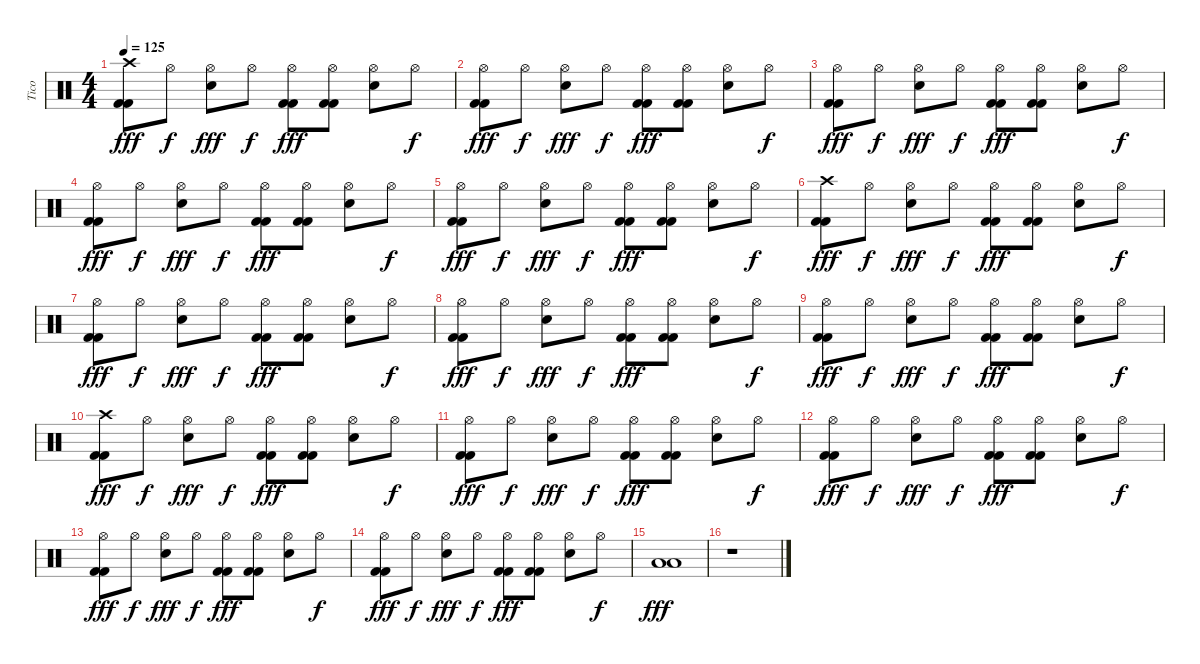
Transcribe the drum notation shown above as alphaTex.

\track ("Tico" "Tico") {instrument percussion}
\staff {score}
\articulation defaults
\ts (4 4)
\tempo 125
\clef neutral
\ks c
("Crash high (hit)" "Kick (hit) 2" "Kick (hit) 2").8{dy fff} "Hi-Hat (open)".8{dy f} ("Hi-Hat (open)" "Snare (hit) 2").8{dy fff} "Hi-Hat (open)".8{dy f} ("Hi-Hat (open)" "Kick (hit) 2" "Kick (hit) 2").8{dy fff} ("Hi-Hat (open)" "Kick (hit) 2" "Kick (hit) 2").8 ("Hi-Hat (open)" "Snare (hit) 2").8 "Hi-Hat (open)".8{dy f} |
("Hi-Hat (open)" "Kick (hit) 2" "Kick (hit) 2").8{dy fff} "Hi-Hat (open)".8{dy f} ("Hi-Hat (open)" "Snare (hit) 2").8{dy fff} "Hi-Hat (open)".8{dy f} ("Hi-Hat (open)" "Kick (hit) 2" "Kick (hit) 2").8{dy fff} ("Hi-Hat (open)" "Kick (hit) 2" "Kick (hit) 2").8 ("Hi-Hat (open)" "Snare (hit) 2").8 "Hi-Hat (open)".8{dy f} |
("Hi-Hat (open)" "Kick (hit) 2" "Kick (hit) 2").8{dy fff} "Hi-Hat (open)".8{dy f} ("Hi-Hat (open)" "Snare (hit) 2").8{dy fff} "Hi-Hat (open)".8{dy f} ("Hi-Hat (open)" "Kick (hit) 2" "Kick (hit) 2").8{dy fff} ("Hi-Hat (open)" "Kick (hit) 2" "Kick (hit) 2").8 ("Hi-Hat (open)" "Snare (hit) 2").8 "Hi-Hat (open)".8{dy f} |
("Hi-Hat (open)" "Kick (hit) 2" "Kick (hit) 2").8{dy fff} "Hi-Hat (open)".8{dy f} ("Hi-Hat (open)" "Snare (hit) 2").8{dy fff} "Hi-Hat (open)".8{dy f} ("Hi-Hat (open)" "Kick (hit) 2" "Kick (hit) 2").8{dy fff} ("Hi-Hat (open)" "Kick (hit) 2" "Kick (hit) 2").8 ("Hi-Hat (open)" "Snare (hit) 2").8 "Hi-Hat (open)".8{dy f} |
("Hi-Hat (open)" "Kick (hit) 2" "Kick (hit) 2").8{dy fff} "Hi-Hat (open)".8{dy f} ("Hi-Hat (open)" "Snare (hit) 2").8{dy fff} "Hi-Hat (open)".8{dy f} ("Hi-Hat (open)" "Kick (hit) 2" "Kick (hit) 2").8{dy fff} ("Hi-Hat (open)" "Kick (hit) 2" "Kick (hit) 2").8 ("Hi-Hat (open)" "Snare (hit) 2").8 "Hi-Hat (open)".8{dy f} |
("Crash high (hit)" "Kick (hit) 2" "Kick (hit) 2").8{dy fff} "Hi-Hat (open)".8{dy f} ("Hi-Hat (open)" "Snare (hit) 2").8{dy fff} "Hi-Hat (open)".8{dy f} ("Hi-Hat (open)" "Kick (hit) 2" "Kick (hit) 2").8{dy fff} ("Hi-Hat (open)" "Kick (hit) 2" "Kick (hit) 2").8 ("Hi-Hat (open)" "Snare (hit) 2").8 "Hi-Hat (open)".8{dy f} |
("Hi-Hat (open)" "Kick (hit) 2" "Kick (hit) 2").8{dy fff} "Hi-Hat (open)".8{dy f} ("Hi-Hat (open)" "Snare (hit) 2").8{dy fff} "Hi-Hat (open)".8{dy f} ("Hi-Hat (open)" "Kick (hit) 2" "Kick (hit) 2").8{dy fff} ("Hi-Hat (open)" "Kick (hit) 2" "Kick (hit) 2").8 ("Hi-Hat (open)" "Snare (hit) 2").8 "Hi-Hat (open)".8{dy f} |
("Hi-Hat (open)" "Kick (hit) 2" "Kick (hit) 2").8{dy fff} "Hi-Hat (open)".8{dy f} ("Hi-Hat (open)" "Snare (hit) 2").8{dy fff} "Hi-Hat (open)".8{dy f} ("Hi-Hat (open)" "Kick (hit) 2" "Kick (hit) 2").8{dy fff} ("Hi-Hat (open)" "Kick (hit) 2" "Kick (hit) 2").8 ("Hi-Hat (open)" "Snare (hit) 2").8 "Hi-Hat (open)".8{dy f} |
("Hi-Hat (open)" "Kick (hit) 2" "Kick (hit) 2").8{dy fff} "Hi-Hat (open)".8{dy f} ("Hi-Hat (open)" "Snare (hit) 2").8{dy fff} "Hi-Hat (open)".8{dy f} ("Hi-Hat (open)" "Kick (hit) 2" "Kick (hit) 2").8{dy fff} ("Hi-Hat (open)" "Kick (hit) 2" "Kick (hit) 2").8 ("Hi-Hat (open)" "Snare (hit) 2").8 "Hi-Hat (open)".8{dy f} |
("Crash high (hit)" "Kick (hit) 2" "Kick (hit) 2").8{dy fff} "Hi-Hat (open)".8{dy f} ("Hi-Hat (open)" "Snare (hit) 2").8{dy fff} "Hi-Hat (open)".8{dy f} ("Hi-Hat (open)" "Kick (hit) 2" "Kick (hit) 2").8{dy fff} ("Hi-Hat (open)" "Kick (hit) 2" "Kick (hit) 2").8 ("Hi-Hat (open)" "Snare (hit) 2").8 "Hi-Hat (open)".8{dy f} |
("Hi-Hat (open)" "Kick (hit) 2" "Kick (hit) 2").8{dy fff} "Hi-Hat (open)".8{dy f} ("Hi-Hat (open)" "Snare (hit) 2").8{dy fff} "Hi-Hat (open)".8{dy f} ("Hi-Hat (open)" "Kick (hit) 2" "Kick (hit) 2").8{dy fff} ("Hi-Hat (open)" "Kick (hit) 2" "Kick (hit) 2").8 ("Hi-Hat (open)" "Snare (hit) 2").8 "Hi-Hat (open)".8{dy f} |
("Hi-Hat (open)" "Kick (hit) 2" "Kick (hit) 2").8{dy fff} "Hi-Hat (open)".8{dy f} ("Hi-Hat (open)" "Snare (hit) 2").8{dy fff} "Hi-Hat (open)".8{dy f} ("Hi-Hat (open)" "Kick (hit) 2" "Kick (hit) 2").8{dy fff} ("Hi-Hat (open)" "Kick (hit) 2" "Kick (hit) 2").8 ("Hi-Hat (open)" "Snare (hit) 2").8 "Hi-Hat (open)".8{dy f} |
("Hi-Hat (open)" "Kick (hit) 2" "Kick (hit) 2").8{dy fff} "Hi-Hat (open)".8{dy f} ("Hi-Hat (open)" "Snare (hit) 2").8{dy fff} "Hi-Hat (open)".8{dy f} ("Hi-Hat (open)" "Kick (hit) 2" "Kick (hit) 2").8{dy fff} ("Hi-Hat (open)" "Kick (hit) 2" "Kick (hit) 2").8 ("Hi-Hat (open)" "Snare (hit) 2").8 "Hi-Hat (open)".8{dy f} |
("Hi-Hat (open)" "Kick (hit) 2" "Kick (hit) 2").8{dy fff} "Hi-Hat (open)".8{dy f} ("Hi-Hat (open)" "Snare (hit) 2").8{dy fff} "Hi-Hat (open)".8{dy f} ("Hi-Hat (open)" "Kick (hit) 2" "Kick (hit) 2").8{dy fff} ("Hi-Hat (open)" "Kick (hit) 2" "Kick (hit) 2").8 ("Hi-Hat (open)" "Snare (hit) 2").8 "Hi-Hat (open)".8{dy f} |
("Low Tom (hit)" "Low Tom (hit)").1{dy fff} |
r.1
